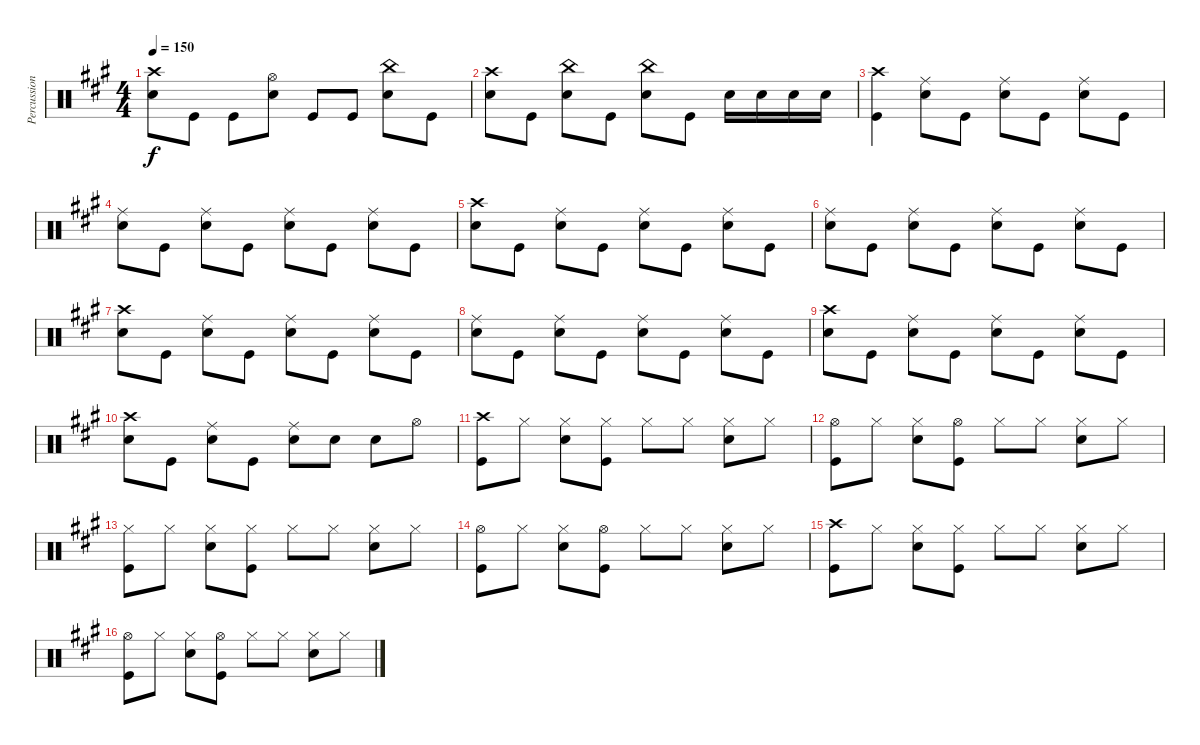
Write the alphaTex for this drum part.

\track ("Percussion" "Percussion") {instrument percussion}
\staff {score}
\articulation defaults
\ts (4 4)
\tempo 150
\clef neutral
\ks a
("Snare (hit) 2" "Crash high (hit)").8{dy f} "Kick (hit)".8 "Kick (hit)".8 ("Snare (hit) 2" "Hi-Hat (open)").8 "Kick (hit)".8 "Kick (hit)".8 ("Snare (hit) 2" "China (hit)").8 "Kick (hit)".8 |
("Snare (hit) 2" "Crash high (hit)").8 "Kick (hit)".8 ("Snare (hit) 2" "China (hit)").8 "Kick (hit)".8 ("Snare (hit) 2" "China (hit)").8 "Kick (hit)".8 "Snare (hit) 2".16 "Snare (hit) 2".16 "Snare (hit) 2".16 "Snare (hit) 2".16 |
("Kick (hit)" "Crash high (hit)").4 ("Snare (hit) 2" "Ride (middle)").8 "Kick (hit)".8 ("Snare (hit) 2" "Ride (middle)").8 "Kick (hit)".8 ("Snare (hit) 2" "Ride (middle)").8 "Kick (hit)".8 |
("Snare (hit) 2" "Ride (middle)").8 "Kick (hit)".8 ("Snare (hit) 2" "Ride (middle)").8 "Kick (hit)".8 ("Snare (hit) 2" "Ride (middle)").8 "Kick (hit)".8 ("Snare (hit) 2" "Ride (middle)").8 "Kick (hit)".8 |
("Snare (hit) 2" "Crash high (hit)").8 "Kick (hit)".8 ("Snare (hit) 2" "Ride (middle)").8 "Kick (hit)".8 ("Snare (hit) 2" "Ride (middle)").8 "Kick (hit)".8 ("Snare (hit) 2" "Ride (middle)").8 "Kick (hit)".8 |
("Snare (hit) 2" "Ride (middle)").8 "Kick (hit)".8 ("Snare (hit) 2" "Ride (middle)").8 "Kick (hit)".8 ("Snare (hit) 2" "Ride (middle)").8 "Kick (hit)".8 ("Snare (hit) 2" "Ride (middle)").8 "Kick (hit)".8 |
("Snare (hit) 2" "Crash high (hit)").8 "Kick (hit)".8 ("Snare (hit) 2" "Ride (middle)").8 "Kick (hit)".8 ("Snare (hit) 2" "Ride (middle)").8 "Kick (hit)".8 ("Snare (hit) 2" "Ride (middle)").8 "Kick (hit)".8 |
("Snare (hit) 2" "Ride (middle)").8 "Kick (hit)".8 ("Snare (hit) 2" "Ride (middle)").8 "Kick (hit)".8 ("Snare (hit) 2" "Ride (middle)").8 "Kick (hit)".8 ("Snare (hit) 2" "Ride (middle)").8 "Kick (hit)".8 |
("Snare (hit) 2" "Crash high (hit)").8 "Kick (hit)".8 ("Snare (hit) 2" "Ride (middle)").8 "Kick (hit)".8 ("Snare (hit) 2" "Ride (middle)").8 "Kick (hit)".8 ("Snare (hit) 2" "Ride (middle)").8 "Kick (hit)".8 |
("Snare (hit) 2" "Crash high (hit)").8 "Kick (hit)".8 ("Snare (hit) 2" "Ride (middle)").8 "Kick (hit)".8 ("Snare (hit) 2" "Ride (middle)").8 "Snare (hit) 2".8 "Snare (hit) 2".8 "Hi-Hat (open)".8 |
("Kick (hit)" "Crash high (hit)").8 "Hi-Hat (closed)".8 ("Snare (hit) 2" "Hi-Hat (closed)").8 ("Kick (hit)" "Hi-Hat (closed)").8 "Hi-Hat (closed)".8 "Hi-Hat (closed)".8 ("Snare (hit) 2" "Hi-Hat (closed)").8 "Hi-Hat (closed)".8 |
("Kick (hit)" "Hi-Hat (open)").8 "Hi-Hat (closed)".8 ("Snare (hit) 2" "Hi-Hat (closed)").8 ("Kick (hit)" "Hi-Hat (open)").8 "Hi-Hat (closed)".8 "Hi-Hat (closed)".8 ("Snare (hit) 2" "Hi-Hat (closed)").8 "Hi-Hat (closed)".8 |
("Kick (hit)" "Hi-Hat (closed)").8 "Hi-Hat (closed)".8 ("Snare (hit) 2" "Hi-Hat (closed)").8 ("Kick (hit)" "Hi-Hat (closed)").8 "Hi-Hat (closed)".8 "Hi-Hat (closed)".8 ("Snare (hit) 2" "Hi-Hat (closed)").8 "Hi-Hat (closed)".8 |
("Kick (hit)" "Hi-Hat (open)").8 "Hi-Hat (closed)".8 ("Snare (hit) 2" "Hi-Hat (closed)").8 ("Kick (hit)" "Hi-Hat (open)").8 "Hi-Hat (closed)".8 "Hi-Hat (closed)".8 ("Snare (hit) 2" "Hi-Hat (closed)").8 "Hi-Hat (closed)".8 |
("Kick (hit)" "Crash high (hit)").8 "Hi-Hat (closed)".8 ("Snare (hit) 2" "Hi-Hat (closed)").8 ("Kick (hit)" "Hi-Hat (closed)").8 "Hi-Hat (closed)".8 "Hi-Hat (closed)".8 ("Snare (hit) 2" "Hi-Hat (closed)").8 "Hi-Hat (closed)".8 |
("Kick (hit)" "Hi-Hat (open)").8 "Hi-Hat (closed)".8 ("Snare (hit) 2" "Hi-Hat (closed)").8 ("Kick (hit)" "Hi-Hat (open)").8 "Hi-Hat (closed)".8 "Hi-Hat (closed)".8 ("Snare (hit) 2" "Hi-Hat (closed)").8 "Hi-Hat (closed)".8
